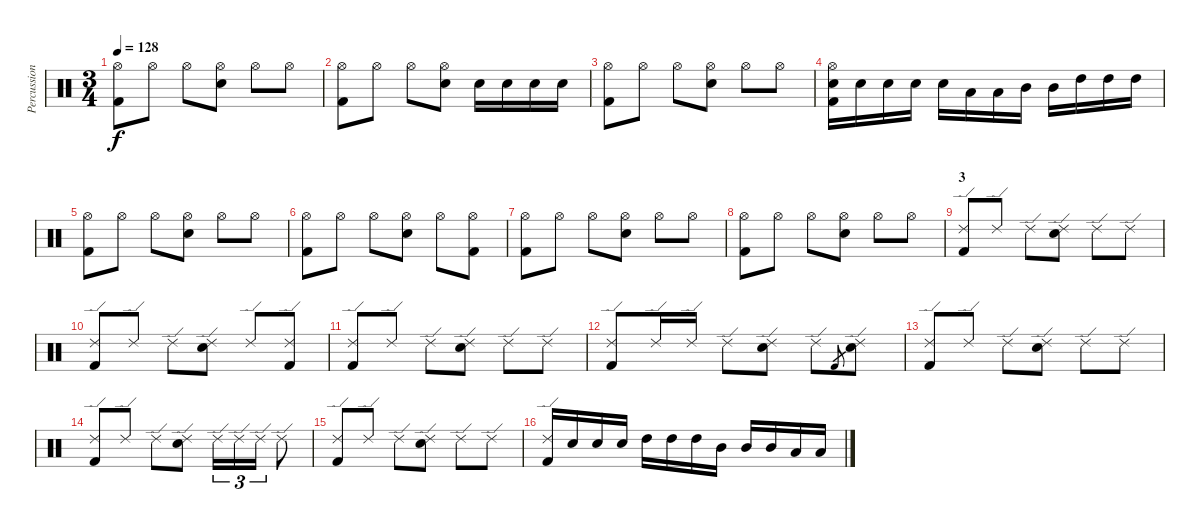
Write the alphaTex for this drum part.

\track ("Percussion" "Percussion") {instrument percussion}
\staff {score}
\articulation defaults
\ts (3 4)
\tempo 128
\clef neutral
\ks c
("Hi-Hat (open)" "Kick (hit) 2").8{dy f} "Hi-Hat (open)".8 "Hi-Hat (open)".8 ("Hi-Hat (open)" "Electric Snare (hit)").8 "Hi-Hat (open)".8 "Hi-Hat (open)".8 |
("Hi-Hat (open)" "Kick (hit) 2").8 "Hi-Hat (open)".8 "Hi-Hat (open)".8 ("Hi-Hat (open)" "Electric Snare (hit)").8 "Electric Snare (hit)".16 "Electric Snare (hit)".16 "Electric Snare (hit)".16 "Electric Snare (hit)".16 |
("Hi-Hat (open)" "Kick (hit) 2").8 "Hi-Hat (open)".8 "Hi-Hat (open)".8 ("Hi-Hat (open)" "Electric Snare (hit)").8 "Hi-Hat (open)".8 "Hi-Hat (open)".8 |
("Hi-Hat (open)" "Electric Snare (hit)" "Kick (hit) 2").16 "Electric Snare (hit)".16 "Electric Snare (hit)".16 "Electric Snare (hit)".16 "Electric Snare (hit)".16 "Low Tom (hit)".16 "Low Tom (hit)".16 "Mid Tom (hit)".16 "Mid Tom (hit)".16 "High Tom (hit)".16 "High Tom (hit)".16 "High Tom (hit)".16 |
("Hi-Hat (open)" "Kick (hit) 2").8 "Hi-Hat (open)".8 "Hi-Hat (open)".8 ("Hi-Hat (open)" "Electric Snare (hit)").8 "Hi-Hat (open)".8 "Hi-Hat (open)".8 |
("Hi-Hat (open)" "Kick (hit) 2").8 "Hi-Hat (open)".8 "Hi-Hat (open)".8 ("Hi-Hat (open)" "Electric Snare (hit)").8 "Hi-Hat (open)".8 ("Hi-Hat (open)" "Kick (hit) 2").8 |
("Hi-Hat (open)" "Kick (hit) 2").8 "Hi-Hat (open)".8 "Hi-Hat (open)".8 ("Hi-Hat (open)" "Electric Snare (hit)").8 "Hi-Hat (open)".8 "Hi-Hat (open)".8 |
("Hi-Hat (open)" "Kick (hit) 2").8 "Hi-Hat (open)".8 "Hi-Hat (open)".8 ("Hi-Hat (open)" "Electric Snare (hit)").8 "Hi-Hat (open)".8 "Hi-Hat (open)".8 |
\section ("" "3")
("Ride (edge) 2" "Kick (hit) 2").8 "Ride (edge) 2".8 "Ride (edge) 2".8 ("Ride (edge) 2" "Electric Snare (hit)").8 "Ride (edge) 2".8 "Ride (edge) 2".8 |
("Ride (edge) 2" "Kick (hit) 2").8 "Ride (edge) 2".8 "Ride (edge) 2".8 ("Ride (edge) 2" "Electric Snare (hit)").8 "Ride (edge) 2".8 ("Ride (edge) 2" "Kick (hit) 2").8 |
("Ride (edge) 2" "Kick (hit) 2").8 "Ride (edge) 2".8 "Ride (edge) 2".8 ("Ride (edge) 2" "Electric Snare (hit)").8 "Ride (edge) 2".8 "Ride (edge) 2".8 |
("Ride (edge) 2" "Kick (hit) 2").8 "Ride (edge) 2".16 "Ride (edge) 2".16 "Ride (edge) 2".8 ("Ride (edge) 2" "Electric Snare (hit)").8 "Ride (edge) 2".8 "Kick (hit) 2".8{gr} ("Ride (edge) 2" "Electric Snare (hit)").8 |
("Ride (edge) 2" "Kick (hit) 2").8 "Ride (edge) 2".8 "Ride (edge) 2".8 ("Ride (edge) 2" "Electric Snare (hit)").8 "Ride (edge) 2".8 "Ride (edge) 2".8 |
("Ride (edge) 2" "Kick (hit) 2").8 "Ride (edge) 2".8 "Ride (edge) 2".8 ("Ride (edge) 2" "Electric Snare (hit)").8 "Ride (edge) 2".16{tu (3 2)} "Ride (edge) 2".16{tu (3 2)} "Ride (edge) 2".16{tu (3 2)} "Ride (edge) 2".8 |
("Ride (edge) 2" "Kick (hit) 2").8 "Ride (edge) 2".8 "Ride (edge) 2".8 ("Ride (edge) 2" "Electric Snare (hit)").8 "Ride (edge) 2".8 "Ride (edge) 2".8 |
("Ride (edge) 2" "Kick (hit) 2").16 "Electric Snare (hit)".16 "Electric Snare (hit)".16 "Electric Snare (hit)".16 "High Tom (hit)".16 "High Tom (hit)".16 "High Tom (hit)".16 "Mid Tom (hit)".16 "Mid Tom (hit)".16 "Mid Tom (hit)".16 "Low Tom (hit)".16 "Low Tom (hit)".16
